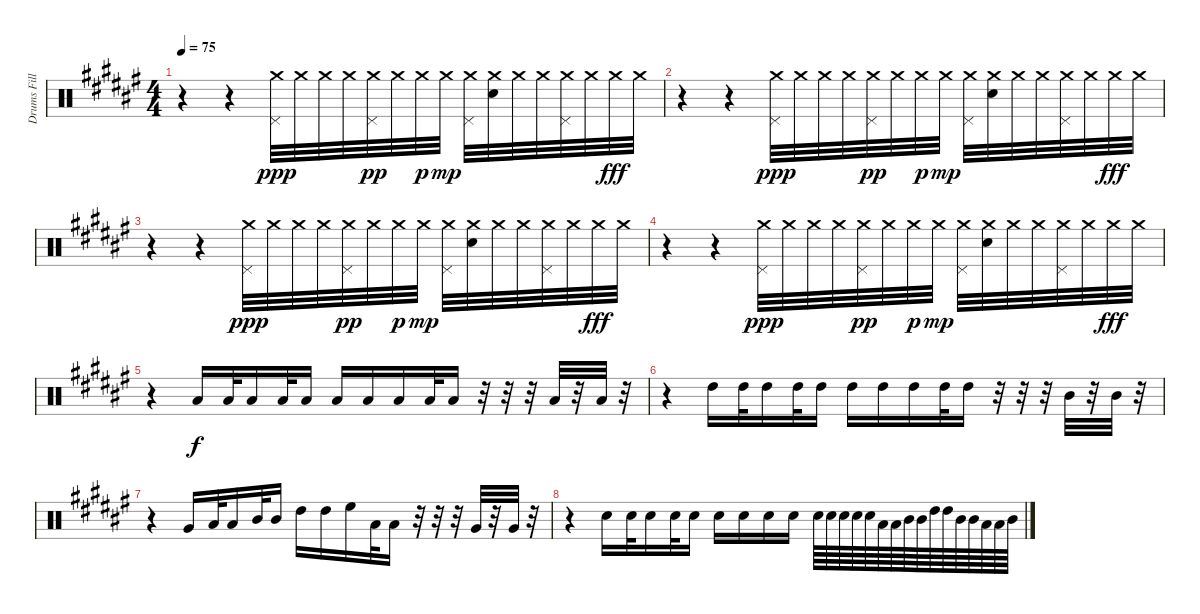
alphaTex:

\track ("Drums Fills MICHAEL" "Drums Fill") {instrument percussion}
\staff {score}
\articulation defaults
\ts (4 4)
\tempo 75
\clef neutral
\ks d#minor
r.4{dy ppp} r.4 ("Pedal Hi-Hat (hit)" "Crash medium (hit)").32 "Crash medium (hit)".32 "Crash medium (hit)".32 "Crash medium (hit)".32 ("Pedal Hi-Hat (hit)" "Crash medium (hit)").32{dy pp} "Crash medium (hit)".32 "Crash medium (hit)".32{dy p} "Crash medium (hit)".32{dy mp} ("Pedal Hi-Hat (hit)" "Crash medium (hit)").32 ("Snare (hit)" "Crash medium (hit)").32 "Crash medium (hit)".32 "Crash medium (hit)".32 ("Pedal Hi-Hat (hit)" "Crash medium (hit)").32 "Crash medium (hit)".32 "Crash medium (hit)".32{dy fff} "Crash medium (hit)".32 |
r.4 r.4 ("Pedal Hi-Hat (hit)" "Crash medium (hit)").32{dy ppp} "Crash medium (hit)".32 "Crash medium (hit)".32 "Crash medium (hit)".32 ("Pedal Hi-Hat (hit)" "Crash medium (hit)").32{dy pp} "Crash medium (hit)".32 "Crash medium (hit)".32{dy p} "Crash medium (hit)".32{dy mp} ("Pedal Hi-Hat (hit)" "Crash medium (hit)").32 ("Snare (hit)" "Crash medium (hit)").32 "Crash medium (hit)".32 "Crash medium (hit)".32 ("Pedal Hi-Hat (hit)" "Crash medium (hit)").32 "Crash medium (hit)".32 "Crash medium (hit)".32{dy fff} "Crash medium (hit)".32 |
r.4 r.4 ("Pedal Hi-Hat (hit)" "Crash medium (hit)").32{dy ppp} "Crash medium (hit)".32 "Crash medium (hit)".32 "Crash medium (hit)".32 ("Pedal Hi-Hat (hit)" "Crash medium (hit)").32{dy pp} "Crash medium (hit)".32 "Crash medium (hit)".32{dy p} "Crash medium (hit)".32{dy mp} ("Pedal Hi-Hat (hit)" "Crash medium (hit)").32 ("Snare (hit)" "Crash medium (hit)").32 "Crash medium (hit)".32 "Crash medium (hit)".32 ("Pedal Hi-Hat (hit)" "Crash medium (hit)").32 "Crash medium (hit)".32 "Crash medium (hit)".32{dy fff} "Crash medium (hit)".32 |
r.4 r.4 ("Pedal Hi-Hat (hit)" "Crash medium (hit)").32{dy ppp} "Crash medium (hit)".32 "Crash medium (hit)".32 "Crash medium (hit)".32 ("Pedal Hi-Hat (hit)" "Crash medium (hit)").32{dy pp} "Crash medium (hit)".32 "Crash medium (hit)".32{dy p} "Crash medium (hit)".32{dy mp} ("Pedal Hi-Hat (hit)" "Crash medium (hit)").32 ("Snare (hit)" "Crash medium (hit)").32 "Crash medium (hit)".32 "Crash medium (hit)".32 ("Pedal Hi-Hat (hit)" "Crash medium (hit)").32 "Crash medium (hit)".32 "Crash medium (hit)".32{dy fff} "Crash medium (hit)".32 |
r.4 "Low Tom (hit)".16{dy f} "Low Tom (hit)".32 "Low Tom (hit)".16 "Low Tom (hit)".32 "Low Tom (hit)".16 "Low Tom (hit)".16 "Low Tom (hit)".16 "Low Tom (hit)".16 "Low Tom (hit)".32 "Low Tom (hit)".16 r.32 r.32 r.32 "Low Tom (hit)".32 r.32 "Low Tom (hit)".32 r.32 |
r.4 "High Tom (hit)".16 "High Tom (hit)".32 "High Tom (hit)".16 "High Tom (hit)".32 "High Tom (hit)".16 "High Tom (hit)".16 "High Tom (hit)".16 "High Tom (hit)".16 "High Tom (hit)".32 "High Tom (hit)".16 r.32 r.32 r.32 "Mid Tom (hit)".32 r.32 "Mid Tom (hit)".32 r.32 |
r.4 "Very Low Tom (hit)".16 "Low Tom (hit)".32 "Low Tom (hit)".16 "Mid Tom (hit)".32 "Mid Tom (hit)".16 "High Tom (hit)".16 "High Tom (hit)".16 "High Floor Tom (hit)".16 "Low Tom (hit)".32 "Low Tom (hit)".16 r.32 r.32 r.32 "Very Low Tom (hit)".32 r.32 "Very Low Tom (hit)".32 r.32 |
r.4 "Snare (hit) 2".16 "Snare (hit) 2".32 "Snare (hit) 2".16 "Snare (hit) 2".32 "Snare (hit) 2".16 "Snare (hit) 2".16 "Snare (hit) 2".16 "Snare (hit) 2".16 "Snare (hit) 2".16 "Snare (hit) 2".64 "Snare (hit) 2".64 "Snare (hit) 2".64 "Snare (hit) 2".64 "Snare (hit) 2".64 "Low Tom (hit)".64 "Low Tom (hit)".64 "Mid Tom (hit)".64 "Mid Tom (hit)".64 "High Tom (hit)".64 "High Tom (hit)".64 "Mid Tom (hit)".64 "Mid Tom (hit)".64 "Low Tom (hit)".64 "Low Tom (hit)".64 "Mid Tom (hit)".64
